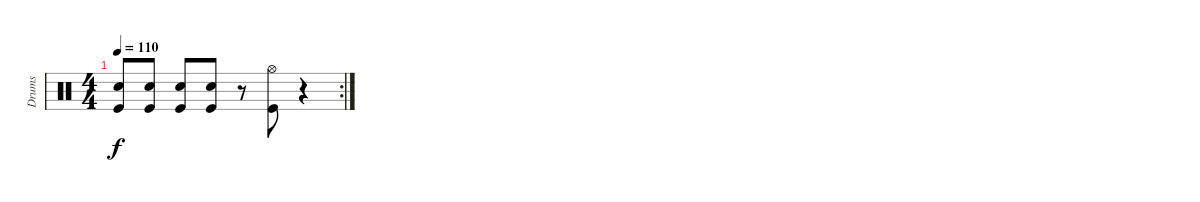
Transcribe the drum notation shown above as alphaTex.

\track ("Drums" "Drums") {instrument percussion}
\staff {score}
\articulation defaults
\rc 2
\ts (4 4)
\tempo 110
\clef neutral
\ks c
("Snare (hit) 2" "Kick (hit)").8{dy f} ("Electric Snare (hit)" "Kick (hit)").8 ("Snare (hit) 2" "Kick (hit)").8 ("Electric Snare (hit)" "Kick (hit)").8 r.8 ("Hi-Hat (open)" "Kick (hit)").8 r.4
